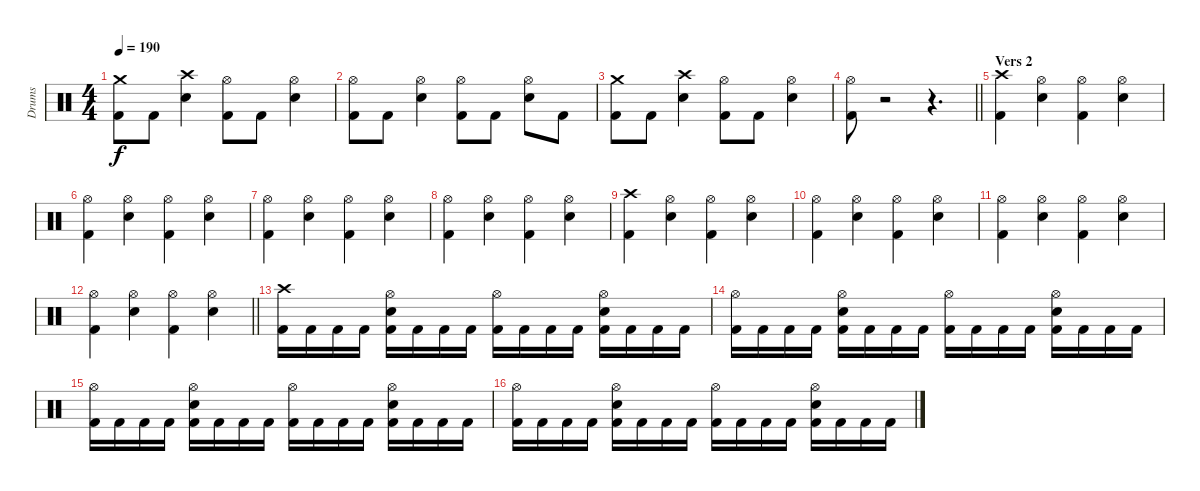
\track ("Drums" "Drums") {instrument percussion}
\staff {score}
\articulation defaults
\ts (4 4)
\tempo 190
\clef neutral
\ks c
("Crash medium (hit)" "Kick (hit) 2").8{dy f} "Kick (hit) 2".8 ("Crash high (hit)" "Snare (hit) 2").4 ("Hi-Hat (open)" "Kick (hit) 2").8 "Kick (hit) 2".8 ("Hi-Hat (open)" "Snare (hit) 2").4 |
("Hi-Hat (open)" "Kick (hit) 2").8 "Kick (hit) 2".8 ("Hi-Hat (open)" "Snare (hit) 2").4 ("Hi-Hat (open)" "Kick (hit) 2").8 "Kick (hit) 2".8 ("Hi-Hat (open)" "Snare (hit) 2").8 "Kick (hit) 2".8 |
("Crash medium (hit)" "Kick (hit) 2").8 "Kick (hit) 2".8 ("Crash high (hit)" "Snare (hit) 2").4 ("Hi-Hat (open)" "Kick (hit) 2").8 "Kick (hit) 2".8 ("Hi-Hat (open)" "Snare (hit) 2").4 |
\barLineRight lightlight
("Hi-Hat (open)" "Kick (hit) 2").8 r.2 r.4{d} |
\section ("" "Vers 2")
("Crash high (hit)" "Kick (hit) 2").4 ("Hi-Hat (open)" "Snare (hit) 2").4 ("Hi-Hat (open)" "Kick (hit) 2").4 ("Hi-Hat (open)" "Snare (hit) 2").4 |
("Hi-Hat (open)" "Kick (hit) 2").4 ("Hi-Hat (open)" "Snare (hit) 2").4 ("Hi-Hat (open)" "Kick (hit) 2").4 ("Hi-Hat (open)" "Snare (hit) 2").4 |
("Hi-Hat (open)" "Kick (hit) 2").4 ("Hi-Hat (open)" "Snare (hit) 2").4 ("Hi-Hat (open)" "Kick (hit) 2").4 ("Hi-Hat (open)" "Snare (hit) 2").4 |
("Hi-Hat (open)" "Kick (hit) 2").4 ("Hi-Hat (open)" "Snare (hit) 2").4 ("Hi-Hat (open)" "Kick (hit) 2").4 ("Hi-Hat (open)" "Snare (hit) 2").4 |
("Crash high (hit)" "Kick (hit) 2").4 ("Hi-Hat (open)" "Snare (hit) 2").4 ("Hi-Hat (open)" "Kick (hit) 2").4 ("Hi-Hat (open)" "Snare (hit) 2").4 |
("Hi-Hat (open)" "Kick (hit) 2").4 ("Hi-Hat (open)" "Snare (hit) 2").4 ("Hi-Hat (open)" "Kick (hit) 2").4 ("Hi-Hat (open)" "Snare (hit) 2").4 |
("Hi-Hat (open)" "Kick (hit) 2").4 ("Hi-Hat (open)" "Snare (hit) 2").4 ("Hi-Hat (open)" "Kick (hit) 2").4 ("Hi-Hat (open)" "Snare (hit) 2").4 |
\barLineRight lightlight
("Hi-Hat (open)" "Kick (hit) 2").4 ("Hi-Hat (open)" "Snare (hit) 2").4 ("Hi-Hat (open)" "Kick (hit) 2").4 ("Hi-Hat (open)" "Snare (hit) 2").4 |
("Crash high (hit)" "Kick (hit) 2").16 "Kick (hit) 2".16 "Kick (hit) 2".16 "Kick (hit) 2".16 ("Hi-Hat (open)" "Snare (hit) 2" "Kick (hit) 2").16 "Kick (hit) 2".16 "Kick (hit) 2".16 "Kick (hit) 2".16 ("Hi-Hat (open)" "Kick (hit) 2").16 "Kick (hit) 2".16 "Kick (hit) 2".16 "Kick (hit) 2".16 ("Hi-Hat (open)" "Snare (hit) 2" "Kick (hit) 2").16 "Kick (hit) 2".16 "Kick (hit) 2".16 "Kick (hit) 2".16 |
("Hi-Hat (open)" "Kick (hit) 2").16 "Kick (hit) 2".16 "Kick (hit) 2".16 "Kick (hit) 2".16 ("Hi-Hat (open)" "Snare (hit) 2" "Kick (hit) 2").16 "Kick (hit) 2".16 "Kick (hit) 2".16 "Kick (hit) 2".16 ("Hi-Hat (open)" "Kick (hit) 2").16 "Kick (hit) 2".16 "Kick (hit) 2".16 "Kick (hit) 2".16 ("Hi-Hat (open)" "Snare (hit) 2" "Kick (hit) 2").16 "Kick (hit) 2".16 "Kick (hit) 2".16 "Kick (hit) 2".16 |
("Hi-Hat (open)" "Kick (hit) 2").16 "Kick (hit) 2".16 "Kick (hit) 2".16 "Kick (hit) 2".16 ("Hi-Hat (open)" "Snare (hit) 2" "Kick (hit) 2").16 "Kick (hit) 2".16 "Kick (hit) 2".16 "Kick (hit) 2".16 ("Hi-Hat (open)" "Kick (hit) 2").16 "Kick (hit) 2".16 "Kick (hit) 2".16 "Kick (hit) 2".16 ("Hi-Hat (open)" "Snare (hit) 2" "Kick (hit) 2").16 "Kick (hit) 2".16 "Kick (hit) 2".16 "Kick (hit) 2".16 |
("Hi-Hat (open)" "Kick (hit) 2").16 "Kick (hit) 2".16 "Kick (hit) 2".16 "Kick (hit) 2".16 ("Hi-Hat (open)" "Snare (hit) 2" "Kick (hit) 2").16 "Kick (hit) 2".16 "Kick (hit) 2".16 "Kick (hit) 2".16 ("Hi-Hat (open)" "Kick (hit) 2").16 "Kick (hit) 2".16 "Kick (hit) 2".16 "Kick (hit) 2".16 ("Hi-Hat (open)" "Snare (hit) 2" "Kick (hit) 2").16 "Kick (hit) 2".16 "Kick (hit) 2".16 "Kick (hit) 2".16
